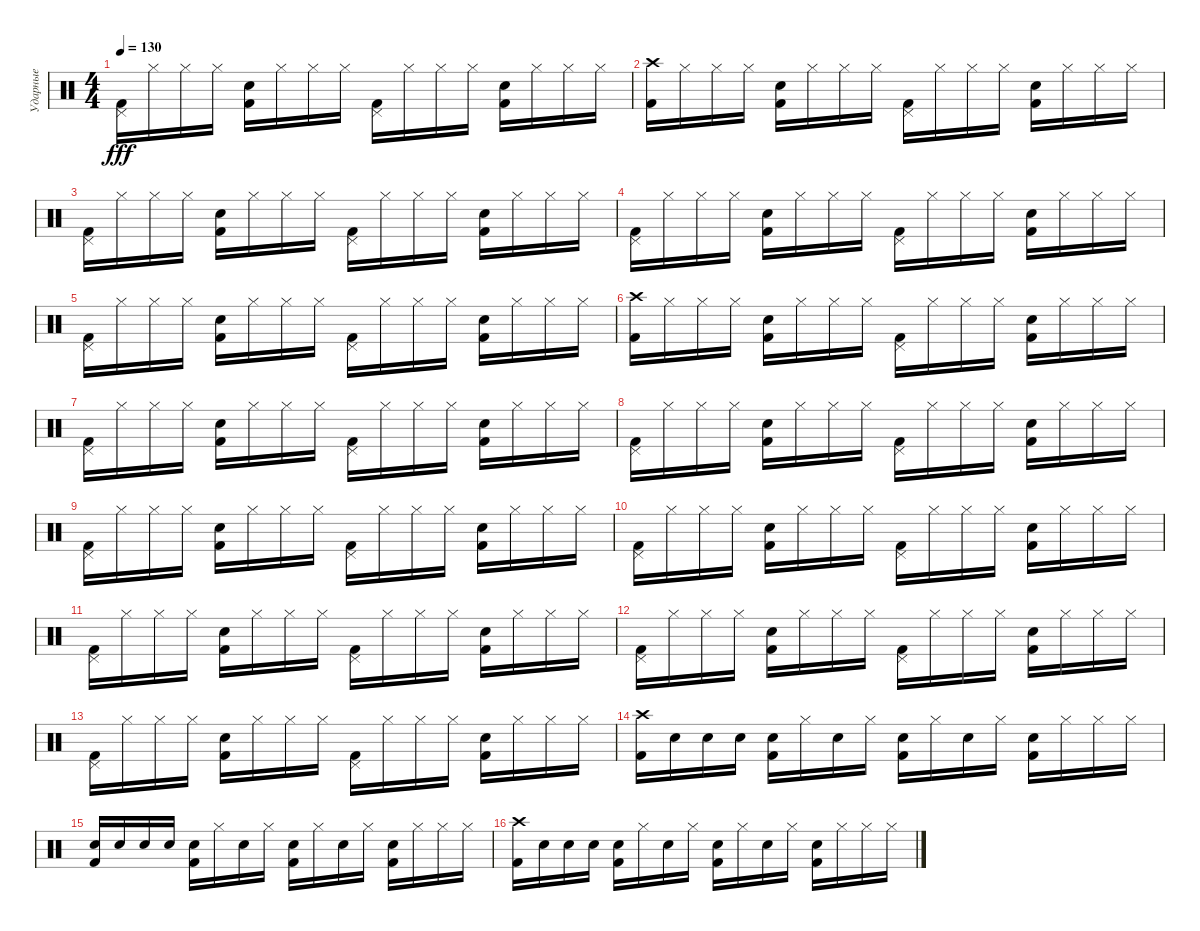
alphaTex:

\track ("Ударные" "Ударные") {instrument percussion}
\staff {score}
\articulation defaults
\ts (4 4)
\tempo 130
\clef neutral
\ks c
("Pedal Hi-Hat (hit)" "Kick (hit) 2").16{dy fff} "Hi-Hat (closed)".16 "Hi-Hat (closed)".16 "Hi-Hat (closed)".16 ("Snare (hit) 2" "Kick (hit) 2").16 "Hi-Hat (closed)".16 "Hi-Hat (closed)".16 "Hi-Hat (closed)".16 ("Pedal Hi-Hat (hit)" "Kick (hit) 2").16 "Hi-Hat (closed)".16 "Hi-Hat (closed)".16 "Hi-Hat (closed)".16 ("Snare (hit) 2" "Kick (hit) 2").16 "Hi-Hat (closed)".16 "Hi-Hat (closed)".16 "Hi-Hat (closed)".16 |
("Crash high (hit)" "Kick (hit) 2").16 "Hi-Hat (closed)".16 "Hi-Hat (closed)".16 "Hi-Hat (closed)".16 ("Snare (hit) 2" "Kick (hit) 2").16 "Hi-Hat (closed)".16 "Hi-Hat (closed)".16 "Hi-Hat (closed)".16 ("Pedal Hi-Hat (hit)" "Kick (hit) 2").16 "Hi-Hat (closed)".16 "Hi-Hat (closed)".16 "Hi-Hat (closed)".16 ("Snare (hit) 2" "Kick (hit) 2").16 "Hi-Hat (closed)".16 "Hi-Hat (closed)".16 "Hi-Hat (closed)".16 |
("Pedal Hi-Hat (hit)" "Kick (hit) 2").16 "Hi-Hat (closed)".16 "Hi-Hat (closed)".16 "Hi-Hat (closed)".16 ("Snare (hit) 2" "Kick (hit) 2").16 "Hi-Hat (closed)".16 "Hi-Hat (closed)".16 "Hi-Hat (closed)".16 ("Pedal Hi-Hat (hit)" "Kick (hit) 2").16 "Hi-Hat (closed)".16 "Hi-Hat (closed)".16 "Hi-Hat (closed)".16 ("Snare (hit) 2" "Kick (hit) 2").16 "Hi-Hat (closed)".16 "Hi-Hat (closed)".16 "Hi-Hat (closed)".16 |
("Pedal Hi-Hat (hit)" "Kick (hit) 2").16 "Hi-Hat (closed)".16 "Hi-Hat (closed)".16 "Hi-Hat (closed)".16 ("Snare (hit) 2" "Kick (hit) 2").16 "Hi-Hat (closed)".16 "Hi-Hat (closed)".16 "Hi-Hat (closed)".16 ("Pedal Hi-Hat (hit)" "Kick (hit) 2").16 "Hi-Hat (closed)".16 "Hi-Hat (closed)".16 "Hi-Hat (closed)".16 ("Snare (hit) 2" "Kick (hit) 2").16 "Hi-Hat (closed)".16 "Hi-Hat (closed)".16 "Hi-Hat (closed)".16 |
("Pedal Hi-Hat (hit)" "Kick (hit) 2").16 "Hi-Hat (closed)".16 "Hi-Hat (closed)".16 "Hi-Hat (closed)".16 ("Snare (hit) 2" "Kick (hit) 2").16 "Hi-Hat (closed)".16 "Hi-Hat (closed)".16 "Hi-Hat (closed)".16 ("Pedal Hi-Hat (hit)" "Kick (hit) 2").16 "Hi-Hat (closed)".16 "Hi-Hat (closed)".16 "Hi-Hat (closed)".16 ("Snare (hit) 2" "Kick (hit) 2").16 "Hi-Hat (closed)".16 "Hi-Hat (closed)".16 "Hi-Hat (closed)".16 |
("Crash high (hit)" "Kick (hit) 2").16 "Hi-Hat (closed)".16 "Hi-Hat (closed)".16 "Hi-Hat (closed)".16 ("Snare (hit) 2" "Kick (hit) 2").16 "Hi-Hat (closed)".16 "Hi-Hat (closed)".16 "Hi-Hat (closed)".16 ("Pedal Hi-Hat (hit)" "Kick (hit) 2").16 "Hi-Hat (closed)".16 "Hi-Hat (closed)".16 "Hi-Hat (closed)".16 ("Snare (hit) 2" "Kick (hit) 2").16 "Hi-Hat (closed)".16 "Hi-Hat (closed)".16 "Hi-Hat (closed)".16 |
("Pedal Hi-Hat (hit)" "Kick (hit) 2").16 "Hi-Hat (closed)".16 "Hi-Hat (closed)".16 "Hi-Hat (closed)".16 ("Snare (hit) 2" "Kick (hit) 2").16 "Hi-Hat (closed)".16 "Hi-Hat (closed)".16 "Hi-Hat (closed)".16 ("Pedal Hi-Hat (hit)" "Kick (hit) 2").16 "Hi-Hat (closed)".16 "Hi-Hat (closed)".16 "Hi-Hat (closed)".16 ("Snare (hit) 2" "Kick (hit) 2").16 "Hi-Hat (closed)".16 "Hi-Hat (closed)".16 "Hi-Hat (closed)".16 |
("Pedal Hi-Hat (hit)" "Kick (hit) 2").16 "Hi-Hat (closed)".16 "Hi-Hat (closed)".16 "Hi-Hat (closed)".16 ("Snare (hit) 2" "Kick (hit) 2").16 "Hi-Hat (closed)".16 "Hi-Hat (closed)".16 "Hi-Hat (closed)".16 ("Pedal Hi-Hat (hit)" "Kick (hit) 2").16 "Hi-Hat (closed)".16 "Hi-Hat (closed)".16 "Hi-Hat (closed)".16 ("Snare (hit) 2" "Kick (hit) 2").16 "Hi-Hat (closed)".16 "Hi-Hat (closed)".16 "Hi-Hat (closed)".16 |
("Pedal Hi-Hat (hit)" "Kick (hit) 2").16 "Hi-Hat (closed)".16 "Hi-Hat (closed)".16 "Hi-Hat (closed)".16 ("Snare (hit) 2" "Kick (hit) 2").16 "Hi-Hat (closed)".16 "Hi-Hat (closed)".16 "Hi-Hat (closed)".16 ("Pedal Hi-Hat (hit)" "Kick (hit) 2").16 "Hi-Hat (closed)".16 "Hi-Hat (closed)".16 "Hi-Hat (closed)".16 ("Snare (hit) 2" "Kick (hit) 2").16 "Hi-Hat (closed)".16 "Hi-Hat (closed)".16 "Hi-Hat (closed)".16 |
("Pedal Hi-Hat (hit)" "Kick (hit) 2").16 "Hi-Hat (closed)".16 "Hi-Hat (closed)".16 "Hi-Hat (closed)".16 ("Snare (hit) 2" "Kick (hit) 2").16 "Hi-Hat (closed)".16 "Hi-Hat (closed)".16 "Hi-Hat (closed)".16 ("Pedal Hi-Hat (hit)" "Kick (hit) 2").16 "Hi-Hat (closed)".16 "Hi-Hat (closed)".16 "Hi-Hat (closed)".16 ("Snare (hit) 2" "Kick (hit) 2").16 "Hi-Hat (closed)".16 "Hi-Hat (closed)".16 "Hi-Hat (closed)".16 |
("Pedal Hi-Hat (hit)" "Kick (hit) 2").16 "Hi-Hat (closed)".16 "Hi-Hat (closed)".16 "Hi-Hat (closed)".16 ("Snare (hit) 2" "Kick (hit) 2").16 "Hi-Hat (closed)".16 "Hi-Hat (closed)".16 "Hi-Hat (closed)".16 ("Pedal Hi-Hat (hit)" "Kick (hit) 2").16 "Hi-Hat (closed)".16 "Hi-Hat (closed)".16 "Hi-Hat (closed)".16 ("Snare (hit) 2" "Kick (hit) 2").16 "Hi-Hat (closed)".16 "Hi-Hat (closed)".16 "Hi-Hat (closed)".16 |
("Pedal Hi-Hat (hit)" "Kick (hit) 2").16 "Hi-Hat (closed)".16 "Hi-Hat (closed)".16 "Hi-Hat (closed)".16 ("Snare (hit) 2" "Kick (hit) 2").16 "Hi-Hat (closed)".16 "Hi-Hat (closed)".16 "Hi-Hat (closed)".16 ("Pedal Hi-Hat (hit)" "Kick (hit) 2").16 "Hi-Hat (closed)".16 "Hi-Hat (closed)".16 "Hi-Hat (closed)".16 ("Snare (hit) 2" "Kick (hit) 2").16 "Hi-Hat (closed)".16 "Hi-Hat (closed)".16 "Hi-Hat (closed)".16 |
("Pedal Hi-Hat (hit)" "Kick (hit) 2").16 "Hi-Hat (closed)".16 "Hi-Hat (closed)".16 "Hi-Hat (closed)".16 ("Snare (hit) 2" "Kick (hit) 2").16 "Hi-Hat (closed)".16 "Hi-Hat (closed)".16 "Hi-Hat (closed)".16 ("Pedal Hi-Hat (hit)" "Kick (hit) 2").16 "Hi-Hat (closed)".16 "Hi-Hat (closed)".16 "Hi-Hat (closed)".16 ("Snare (hit) 2" "Kick (hit) 2").16 "Hi-Hat (closed)".16 "Hi-Hat (closed)".16 "Hi-Hat (closed)".16 |
("Crash high (hit)" "Kick (hit) 2").16 "Snare (hit) 2".16 "Snare (hit) 2".16 "Snare (hit) 2".16 ("Snare (hit) 2" "Kick (hit) 2").16 "Hi-Hat (closed)".16 "Snare (hit) 2".16 "Hi-Hat (closed)".16 ("Snare (hit) 2" "Kick (hit) 2").16 "Hi-Hat (closed)".16 "Snare (hit) 2".16 "Hi-Hat (closed)".16 ("Snare (hit) 2" "Kick (hit) 2").16 "Hi-Hat (closed)".16 "Hi-Hat (closed)".16 "Hi-Hat (closed)".16 |
("Snare (hit) 2" "Kick (hit) 2").16 "Snare (hit) 2".16 "Snare (hit) 2".16 "Snare (hit) 2".16 ("Snare (hit) 2" "Kick (hit) 2").16 "Hi-Hat (closed)".16 "Snare (hit) 2".16 "Hi-Hat (closed)".16 ("Snare (hit) 2" "Kick (hit) 2").16 "Hi-Hat (closed)".16 "Snare (hit) 2".16 "Hi-Hat (closed)".16 ("Snare (hit) 2" "Kick (hit) 2").16 "Hi-Hat (closed)".16 "Hi-Hat (closed)".16 "Hi-Hat (closed)".16 |
("Crash high (hit)" "Kick (hit) 2").16 "Snare (hit) 2".16 "Snare (hit) 2".16 "Snare (hit) 2".16 ("Snare (hit) 2" "Kick (hit) 2").16 "Hi-Hat (closed)".16 "Snare (hit) 2".16 "Hi-Hat (closed)".16 ("Snare (hit) 2" "Kick (hit) 2").16 "Hi-Hat (closed)".16 "Snare (hit) 2".16 "Hi-Hat (closed)".16 ("Snare (hit) 2" "Kick (hit) 2").16 "Hi-Hat (closed)".16 "Hi-Hat (closed)".16 "Hi-Hat (closed)".16
